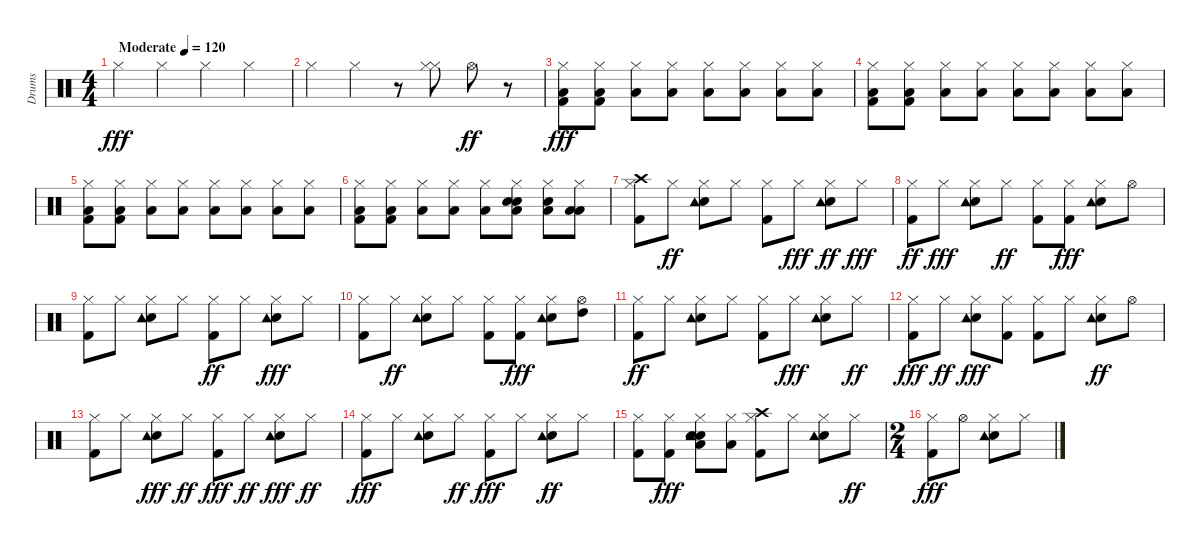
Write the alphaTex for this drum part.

\track ("Drums" "Drums") {instrument percussion}
\staff {score}
\articulation defaults
\ts (4 4)
\tempo (120 "Moderate")
\clef neutral
\ks c "Hi-Hat (closed)".4{dy fff} "Hi-Hat (closed)".4 "Hi-Hat (closed)".4 "Hi-Hat (closed)".4
|
"Hi-Hat (closed)".4 "Hi-Hat (closed)".4 r.8 ("Hi-Hat (closed)" "Hi-Hat (closed)").8 "Hi-Hat (open)".8{dy ff} r.8 |
("Kick (hit) 2" "Hi-Hat (closed)" "Low Floor Tom (hit)").8{dy fff} ("Kick (hit) 2" "Hi-Hat (closed)" "Low Floor Tom (hit)").8 ("Hi-Hat (closed)" "Low Floor Tom (hit)").8 ("Hi-Hat (closed)" "Low Floor Tom (hit)").8 ("Hi-Hat (closed)" "Low Floor Tom (hit)").8 ("Hi-Hat (closed)" "Low Floor Tom (hit)").8 ("Hi-Hat (closed)" "Low Floor Tom (hit)").8 ("Hi-Hat (closed)" "Low Floor Tom (hit)").8 |
("Kick (hit) 2" "Hi-Hat (closed)" "Low Floor Tom (hit)").8 ("Kick (hit) 2" "Hi-Hat (closed)" "Low Floor Tom (hit)").8 ("Hi-Hat (closed)" "Low Floor Tom (hit)").8 ("Hi-Hat (closed)" "Low Floor Tom (hit)").8 ("Hi-Hat (closed)" "Low Floor Tom (hit)").8 ("Hi-Hat (closed)" "Low Floor Tom (hit)").8 ("Hi-Hat (closed)" "Low Floor Tom (hit)").8 ("Hi-Hat (closed)" "Low Floor Tom (hit)").8 |
("Kick (hit) 2" "Hi-Hat (closed)" "Low Floor Tom (hit)").8 ("Kick (hit) 2" "Hi-Hat (closed)" "Low Floor Tom (hit)").8 ("Hi-Hat (closed)" "Low Floor Tom (hit)").8 ("Hi-Hat (closed)" "Low Floor Tom (hit)").8 ("Hi-Hat (closed)" "Low Floor Tom (hit)").8 ("Hi-Hat (closed)" "Low Floor Tom (hit)").8 ("Hi-Hat (closed)" "Low Floor Tom (hit)").8 ("Hi-Hat (closed)" "Low Floor Tom (hit)").8 |
("Kick (hit) 2" "Hi-Hat (closed)" "Low Floor Tom (hit)").8 ("Kick (hit) 2" "Hi-Hat (closed)" "Low Floor Tom (hit)").8 ("Hi-Hat (closed)" "Low Floor Tom (hit)").8 ("Hi-Hat (closed)" "Low Floor Tom (hit)").8 ("Hi-Hat (closed)" "Low Floor Tom (hit)").8 ("Hi-Hat (closed)" "Low Floor Tom (hit)" "Snare (hit) 2" "Snare (hit) 2").8 ("Hi-Hat (closed)" "Low Floor Tom (hit)" "Snare (hit) 2").8 ("Hi-Hat (closed)" "Low Tom (hit)" "Low Floor Tom (hit)").8 |
("Kick (hit) 2" "Hi-Hat (closed)" "Crash high (hit)").8 "Hi-Hat (closed)".8{dy ff} ("Hi-Hat (closed)" "Snare (hit) 2" "Tambourine (hit)").8 "Hi-Hat (closed)".8 ("Kick (hit) 2" "Hi-Hat (closed)").8 "Hi-Hat (closed)".8{dy fff} ("Hi-Hat (closed)" "Snare (hit) 2" "Tambourine (hit)").8{dy ff} "Hi-Hat (closed)".8{dy fff} |
("Kick (hit) 2" "Hi-Hat (closed)").8{dy ff} "Hi-Hat (closed)".8{dy fff} ("Hi-Hat (closed)" "Snare (hit) 2" "Tambourine (hit)").8 "Hi-Hat (closed)".8{dy ff} ("Kick (hit) 2" "Hi-Hat (closed)").8 ("Kick (hit) 2" "Hi-Hat (closed)").8{dy fff} ("Hi-Hat (closed)" "Snare (hit) 2" "Tambourine (hit)").8 "Hi-Hat (open)".8 |
("Kick (hit) 2" "Hi-Hat (closed)").8 "Hi-Hat (closed)".8 ("Hi-Hat (closed)" "Snare (hit) 2" "Tambourine (hit)").8 "Hi-Hat (closed)".8 ("Kick (hit) 2" "Hi-Hat (closed)").8{dy ff} "Hi-Hat (closed)".8 ("Hi-Hat (closed)" "Snare (hit) 2" "Tambourine (hit)").8{dy fff} "Hi-Hat (closed)".8 |
("Kick (hit) 2" "Hi-Hat (closed)").8 "Hi-Hat (closed)".8{dy ff} ("Hi-Hat (closed)" "Snare (hit) 2" "Tambourine (hit)").8 "Hi-Hat (closed)".8 ("Kick (hit) 2" "Hi-Hat (closed)").8 ("Kick (hit) 2" "Hi-Hat (closed)").8{dy fff} ("Hi-Hat (closed)" "Snare (hit) 2" "Tambourine (hit)").8 ("Hi-Hat (open)" "High Tom (hit)").8 |
("Kick (hit) 2" "Hi-Hat (closed)").8{dy ff} "Hi-Hat (closed)".8 ("Hi-Hat (closed)" "Snare (hit) 2" "Tambourine (hit)").8 "Hi-Hat (closed)".8 ("Kick (hit) 2" "Hi-Hat (closed)").8 "Hi-Hat (closed)".8{dy fff} ("Hi-Hat (closed)" "Snare (hit) 2" "Tambourine (hit)").8 "Hi-Hat (closed)".8{dy ff} |
("Kick (hit) 2" "Hi-Hat (closed)").8{dy fff} "Hi-Hat (closed)".8{dy ff} ("Hi-Hat (closed)" "Snare (hit) 2" "Tambourine (hit)").8{dy fff} ("Kick (hit) 2" "Hi-Hat (closed)").8 ("Kick (hit) 2" "Hi-Hat (closed)").8 "Hi-Hat (closed)".8 ("Hi-Hat (closed)" "Snare (hit) 2" "Tambourine (hit)").8{dy ff} "Hi-Hat (open)".8 |
("Kick (hit) 2" "Hi-Hat (closed)").8 "Hi-Hat (closed)".8 ("Hi-Hat (closed)" "Snare (hit) 2" "Tambourine (hit)").8{dy fff} "Hi-Hat (closed)".8{dy ff} ("Kick (hit) 2" "Hi-Hat (closed)").8{dy fff} "Hi-Hat (closed)".8{dy ff} ("Hi-Hat (closed)" "Snare (hit) 2" "Tambourine (hit)").8{dy fff} "Hi-Hat (closed)".8{dy ff} |
("Kick (hit) 2" "Hi-Hat (closed)").8{dy fff} "Hi-Hat (closed)".8 ("Hi-Hat (closed)" "Snare (hit) 2" "Tambourine (hit)").8 "Hi-Hat (closed)".8{dy ff} ("Kick (hit) 2" "Hi-Hat (closed)").8{dy fff} "Hi-Hat (closed)".8 ("Hi-Hat (closed)" "Snare (hit) 2" "Tambourine (hit)").8{dy ff} "Hi-Hat (closed)".8 |
("Kick (hit) 2" "Hi-Hat (closed)").8 ("Kick (hit) 2" "Hi-Hat (closed)").8{dy fff} ("Hi-Hat (closed)" "Snare (hit) 2" "Tambourine (hit)" "Low Tom (hit)" "Snare (hit) 2").8 ("Hi-Hat (closed)" "Low Floor Tom (hit)").8 ("Kick (hit) 2" "Hi-Hat (closed)" "Crash high (hit)").8 "Hi-Hat (closed)".8 ("Hi-Hat (closed)" "Snare (hit) 2" "Tambourine (hit)").8 "Hi-Hat (closed)".8{dy ff} |
\ts (2 4)
("Kick (hit) 2" "Hi-Hat (closed)").8{dy fff} "Hi-Hat (open)".8 ("Hi-Hat (closed)" "Snare (hit) 2" "Tambourine (hit)").8 "Hi-Hat (closed)".8
